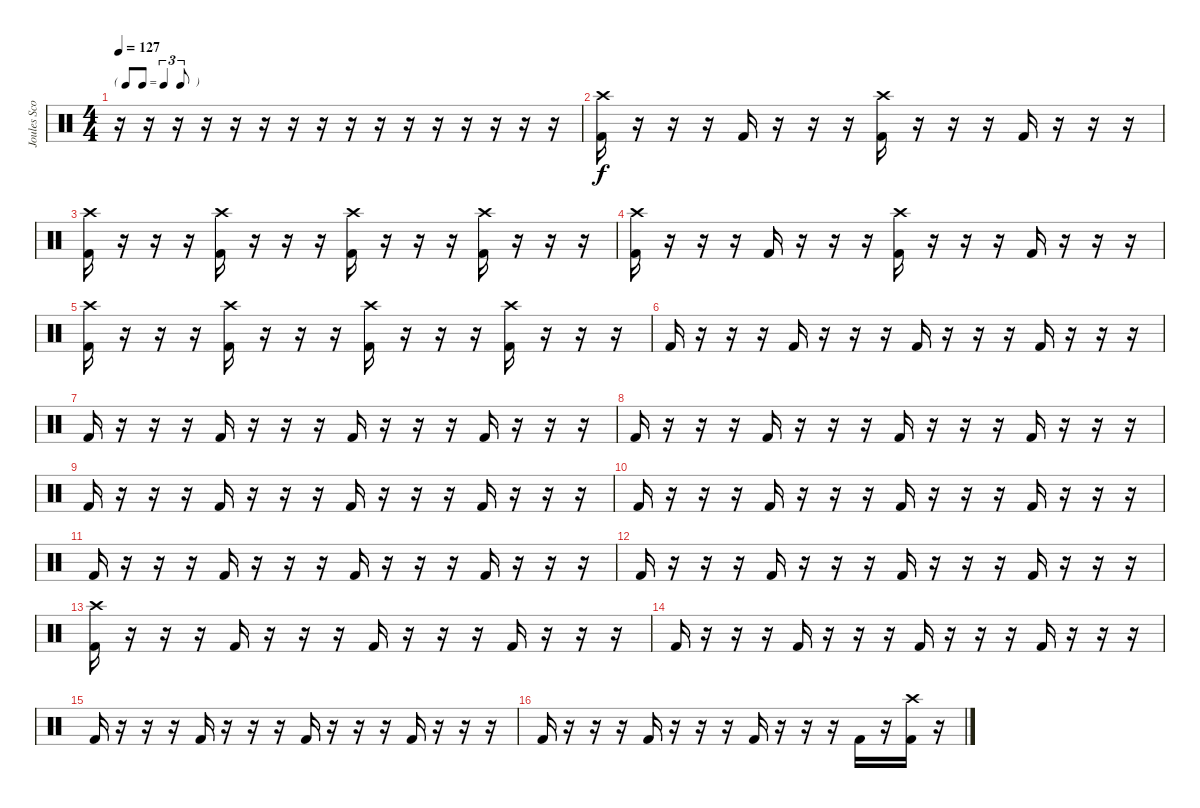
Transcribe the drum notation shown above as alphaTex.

\track ("Joules Scott-Key" "Joules Sco") {instrument percussion}
\staff {score}
\articulation defaults
\ts (4 4)
\tf triplet8th
\tempo 127
\clef neutral
\ks c
r.16{dy f} r.16 r.16 r.16 r.16 r.16 r.16 r.16 r.16 r.16 r.16 r.16 r.16 r.16 r.16 r.16 |
("Crash high (hit)" "Kick (hit) 2").16 r.16 r.16 r.16 "Kick (hit) 2".16 r.16 r.16 r.16 ("Crash high (hit)" "Kick (hit) 2").16 r.16 r.16 r.16 "Kick (hit) 2".16 r.16 r.16 r.16 |
("Crash high (hit)" "Kick (hit) 2").16 r.16 r.16 r.16 ("Crash high (hit)" "Kick (hit) 2").16 r.16 r.16 r.16 ("Crash high (hit)" "Kick (hit) 2").16 r.16 r.16 r.16 ("Crash high (hit)" "Kick (hit) 2").16 r.16 r.16 r.16 |
("Crash high (hit)" "Kick (hit) 2").16 r.16 r.16 r.16 "Kick (hit) 2".16 r.16 r.16 r.16 ("Crash high (hit)" "Kick (hit) 2").16 r.16 r.16 r.16 "Kick (hit) 2".16 r.16 r.16 r.16 |
("Crash high (hit)" "Kick (hit) 2").16 r.16 r.16 r.16 ("Crash high (hit)" "Kick (hit) 2").16 r.16 r.16 r.16 ("Crash high (hit)" "Kick (hit) 2").16 r.16 r.16 r.16 ("Crash high (hit)" "Kick (hit) 2").16 r.16 r.16 r.16 |
"Kick (hit) 2".16 r.16 r.16 r.16 "Kick (hit) 2".16 r.16 r.16 r.16 "Kick (hit) 2".16 r.16 r.16 r.16 "Kick (hit) 2".16 r.16 r.16 r.16 |
"Kick (hit) 2".16 r.16 r.16 r.16 "Kick (hit) 2".16 r.16 r.16 r.16 "Kick (hit) 2".16 r.16 r.16 r.16 "Kick (hit) 2".16 r.16 r.16 r.16 |
"Kick (hit) 2".16 r.16 r.16 r.16 "Kick (hit) 2".16 r.16 r.16 r.16 "Kick (hit) 2".16 r.16 r.16 r.16 "Kick (hit) 2".16 r.16 r.16 r.16 |
"Kick (hit) 2".16 r.16 r.16 r.16 "Kick (hit) 2".16 r.16 r.16 r.16 "Kick (hit) 2".16 r.16 r.16 r.16 "Kick (hit) 2".16 r.16 r.16 r.16 |
"Kick (hit) 2".16 r.16 r.16 r.16 "Kick (hit) 2".16 r.16 r.16 r.16 "Kick (hit) 2".16 r.16 r.16 r.16 "Kick (hit) 2".16 r.16 r.16 r.16 |
"Kick (hit) 2".16 r.16 r.16 r.16 "Kick (hit) 2".16 r.16 r.16 r.16 "Kick (hit) 2".16 r.16 r.16 r.16 "Kick (hit) 2".16 r.16 r.16 r.16 |
"Kick (hit) 2".16 r.16 r.16 r.16 "Kick (hit) 2".16 r.16 r.16 r.16 "Kick (hit) 2".16 r.16 r.16 r.16 "Kick (hit) 2".16 r.16 r.16 r.16 |
("Crash high (hit)" "Kick (hit) 2").16 r.16 r.16 r.16 "Kick (hit) 2".16 r.16 r.16 r.16 "Kick (hit) 2".16 r.16 r.16 r.16 "Kick (hit) 2".16 r.16 r.16 r.16 |
"Kick (hit) 2".16 r.16 r.16 r.16 "Kick (hit) 2".16 r.16 r.16 r.16 "Kick (hit) 2".16 r.16 r.16 r.16 "Kick (hit) 2".16 r.16 r.16 r.16 |
"Kick (hit) 2".16 r.16 r.16 r.16 "Kick (hit) 2".16 r.16 r.16 r.16 "Kick (hit) 2".16 r.16 r.16 r.16 "Kick (hit) 2".16 r.16 r.16 r.16 |
"Kick (hit) 2".16 r.16 r.16 r.16 "Kick (hit) 2".16 r.16 r.16 r.16 "Kick (hit) 2".16 r.16 r.16 r.16 "Kick (hit) 2".16 r.16 ("Crash high (hit)" "Kick (hit) 2").16 r.16
